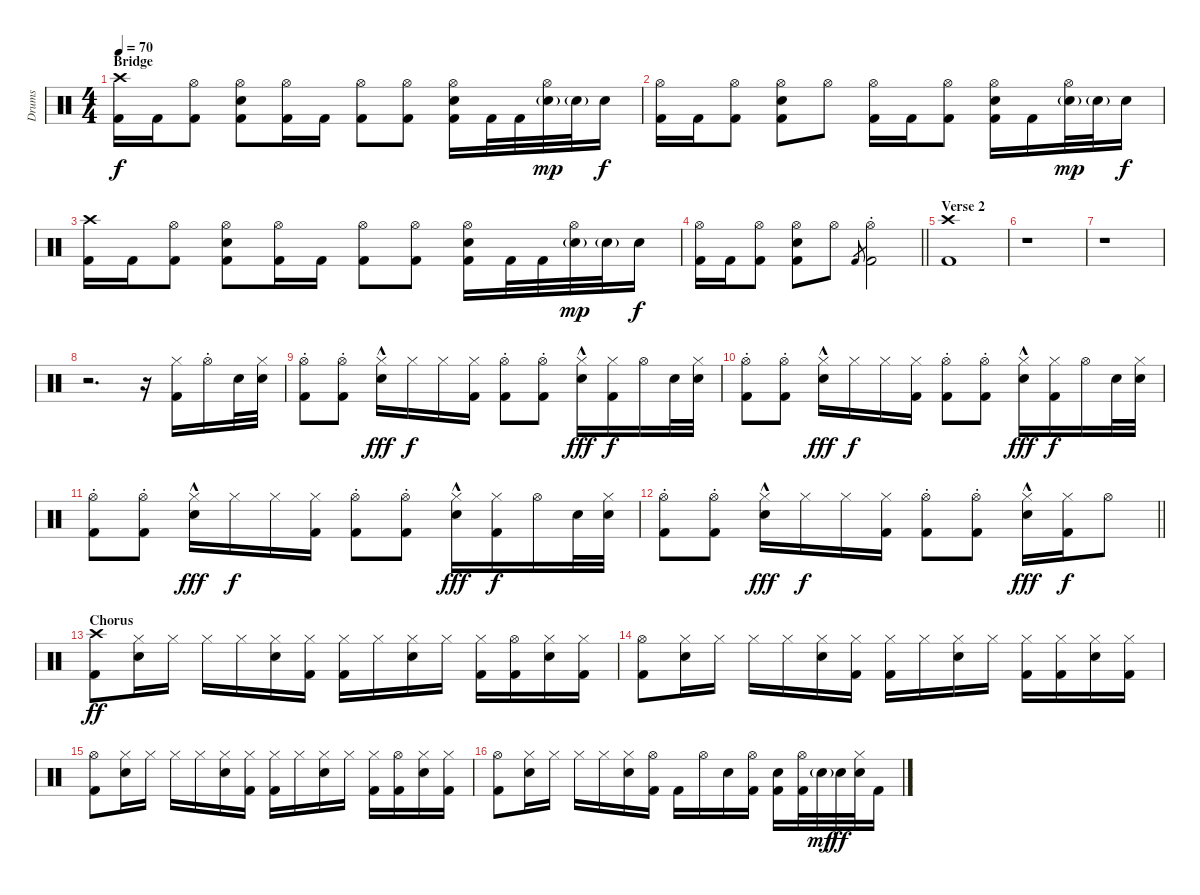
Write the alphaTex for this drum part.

\track ("Drums" "Drums") {instrument percussion}
\staff {score}
\articulation defaults
\ts (4 4)
\section ("" "Bridge")
\tempo 70
\clef neutral
\ks c
("Crash high (hit)" "Kick (hit) 2").16{dy f} "Kick (hit) 2".16 ("Hi-Hat (open)" "Kick (hit) 2").8 ("Hi-Hat (open)" "Electric Snare (hit)" "Kick (hit) 2").8 ("Hi-Hat (open)" "Kick (hit) 2").16 "Kick (hit) 2".16 ("Hi-Hat (open)" "Kick (hit) 2").8 ("Hi-Hat (open)" "Kick (hit) 2").8 ("Hi-Hat (open)" "Electric Snare (hit)" "Kick (hit) 2").16 "Kick (hit) 2".32 "Kick (hit) 2".32 ("Hi-Hat (open)" "Electric Snare (hit)"{g}).32{dy mp} "Electric Snare (hit)"{g}.32 "Electric Snare (hit)".16{dy f} |
("Hi-Hat (open)" "Kick (hit) 2").16 "Kick (hit) 2".16 ("Hi-Hat (open)" "Kick (hit) 2").8 ("Hi-Hat (open)" "Electric Snare (hit)" "Kick (hit) 2").8 "Hi-Hat (open)".8 ("Hi-Hat (open)" "Kick (hit) 2").16 "Kick (hit) 2".16 ("Hi-Hat (open)" "Kick (hit) 2").8 ("Hi-Hat (open)" "Electric Snare (hit)" "Kick (hit) 2").16 "Kick (hit) 2".16 ("Hi-Hat (open)" "Electric Snare (hit)"{g}).32{dy mp} "Electric Snare (hit)"{g}.32 "Electric Snare (hit)".16{dy f} |
("Crash high (hit)" "Kick (hit) 2").16 "Kick (hit) 2".16 ("Hi-Hat (open)" "Kick (hit) 2").8 ("Hi-Hat (open)" "Electric Snare (hit)" "Kick (hit) 2").8 ("Hi-Hat (open)" "Kick (hit) 2").16 "Kick (hit) 2".16 ("Hi-Hat (open)" "Kick (hit) 2").8 ("Hi-Hat (open)" "Kick (hit) 2").8 ("Hi-Hat (open)" "Electric Snare (hit)" "Kick (hit) 2").16 "Kick (hit) 2".32 "Kick (hit) 2".32 ("Hi-Hat (open)" "Electric Snare (hit)"{g}).32{dy mp} "Electric Snare (hit)"{g}.32 "Electric Snare (hit)".16{dy f} |
\barLineRight lightlight
("Hi-Hat (open)" "Kick (hit) 2").16 "Kick (hit) 2".16 ("Hi-Hat (open)" "Kick (hit) 2").8 ("Hi-Hat (open)" "Electric Snare (hit)" "Kick (hit) 2").8 "Hi-Hat (open)".8 "Kick (hit) 2".8{gr} ("Hi-Hat (open)"{st} "Kick (hit) 2").2 |
\section ("" "Verse 2")
("Crash high (hit)" "Kick (hit) 2").1 |
r.1 |
r.1 |
r.2{d} r.16 ("Hi-Hat (closed)" "Kick (hit) 2").16 "Hi-Hat (open)"{st}.16 "Electric Snare (hit)".32 ("Hi-Hat (closed)" "Electric Snare (hit)").32 |
("Hi-Hat (open)"{st} "Kick (hit) 2").8 ("Hi-Hat (open)"{st} "Kick (hit) 2").8 ("Hi-Hat (closed)" "Electric Snare (hit)"{hac}).16{dy fff} "Hi-Hat (closed)".16{dy f} "Hi-Hat (closed)".16 ("Hi-Hat (closed)" "Kick (hit) 2").16 ("Hi-Hat (open)"{st} "Kick (hit) 2").8 ("Hi-Hat (open)"{st} "Kick (hit) 2").8 ("Hi-Hat (closed)" "Electric Snare (hit)"{hac}).16{dy fff} ("Hi-Hat (closed)" "Kick (hit) 2").16{dy f} "Hi-Hat (open)".16 "Electric Snare (hit)".32 ("Hi-Hat (closed)" "Electric Snare (hit)").32 |
("Hi-Hat (open)"{st} "Kick (hit) 2").8 ("Hi-Hat (open)"{st} "Kick (hit) 2").8 ("Hi-Hat (closed)" "Electric Snare (hit)"{hac}).16{dy fff} "Hi-Hat (closed)".16{dy f} "Hi-Hat (closed)".16 ("Hi-Hat (closed)" "Kick (hit) 2").16 ("Hi-Hat (open)"{st} "Kick (hit) 2").8 ("Hi-Hat (open)"{st} "Kick (hit) 2").8 ("Hi-Hat (closed)" "Electric Snare (hit)"{hac}).16{dy fff} ("Hi-Hat (closed)" "Kick (hit) 2").16{dy f} "Hi-Hat (open)".16 "Electric Snare (hit)".32 ("Hi-Hat (closed)" "Electric Snare (hit)").32 |
("Hi-Hat (open)"{st} "Kick (hit) 2").8 ("Hi-Hat (open)"{st} "Kick (hit) 2").8 ("Hi-Hat (closed)" "Electric Snare (hit)"{hac}).16{dy fff} "Hi-Hat (closed)".16{dy f} "Hi-Hat (closed)".16 ("Hi-Hat (closed)" "Kick (hit) 2").16 ("Hi-Hat (open)"{st} "Kick (hit) 2").8 ("Hi-Hat (open)"{st} "Kick (hit) 2").8 ("Hi-Hat (closed)" "Electric Snare (hit)"{hac}).16{dy fff} ("Hi-Hat (closed)" "Kick (hit) 2").16{dy f} "Hi-Hat (open)".16 "Electric Snare (hit)".32 ("Hi-Hat (closed)" "Electric Snare (hit)").32 |
\barLineRight lightlight
("Hi-Hat (open)"{st} "Kick (hit) 2").8 ("Hi-Hat (open)"{st} "Kick (hit) 2").8 ("Hi-Hat (closed)" "Electric Snare (hit)"{hac}).16{dy fff} "Hi-Hat (closed)".16{dy f} "Hi-Hat (closed)".16 ("Hi-Hat (closed)" "Kick (hit) 2").16 ("Hi-Hat (open)"{st} "Kick (hit) 2").8 ("Hi-Hat (open)"{st} "Kick (hit) 2").8 ("Hi-Hat (closed)" "Electric Snare (hit)"{hac}).16{dy fff} ("Hi-Hat (closed)" "Kick (hit) 2").16{dy f} "Hi-Hat (open)".8 |
\section ("" "Chorus")
("Crash high (hit)" "Kick (hit) 2").8{dy ff} ("Hi-Hat (closed)" "Electric Snare (hit)").16 "Hi-Hat (closed)".16 "Hi-Hat (closed)".16 "Hi-Hat (closed)".16 ("Hi-Hat (closed)" "Electric Snare (hit)").16 ("Hi-Hat (closed)" "Kick (hit) 2").16 ("Hi-Hat (closed)" "Kick (hit) 2").16 "Hi-Hat (closed)".16 ("Hi-Hat (closed)" "Electric Snare (hit)").16 "Hi-Hat (closed)".16 ("Hi-Hat (closed)" "Kick (hit) 2").16 ("Hi-Hat (open)" "Kick (hit) 2").16 ("Hi-Hat (closed)" "Electric Snare (hit)").16 ("Hi-Hat (closed)" "Kick (hit) 2").16 |
("Hi-Hat (open)" "Kick (hit) 2").8 ("Hi-Hat (closed)" "Electric Snare (hit)").16 "Hi-Hat (closed)".16 "Hi-Hat (closed)".16 "Hi-Hat (closed)".16 ("Hi-Hat (closed)" "Electric Snare (hit)").16 ("Hi-Hat (closed)" "Kick (hit) 2").16 ("Hi-Hat (closed)" "Kick (hit) 2").16 "Hi-Hat (closed)".16 ("Hi-Hat (closed)" "Electric Snare (hit)").16 "Hi-Hat (closed)".16 ("Hi-Hat (closed)" "Kick (hit) 2").16 ("Hi-Hat (closed)" "Kick (hit) 2").16 ("Hi-Hat (closed)" "Electric Snare (hit)").16 ("Hi-Hat (closed)" "Kick (hit) 2").16 |
("Hi-Hat (open)" "Kick (hit) 2").8 ("Hi-Hat (closed)" "Electric Snare (hit)").16 "Hi-Hat (closed)".16 "Hi-Hat (closed)".16 "Hi-Hat (closed)".16 ("Hi-Hat (closed)" "Electric Snare (hit)").16 ("Hi-Hat (closed)" "Kick (hit) 2").16 ("Hi-Hat (closed)" "Kick (hit) 2").16 "Hi-Hat (closed)".16 ("Hi-Hat (closed)" "Electric Snare (hit)").16 "Hi-Hat (closed)".16 ("Hi-Hat (closed)" "Kick (hit) 2").16 ("Hi-Hat (open)" "Kick (hit) 2").16 ("Hi-Hat (closed)" "Electric Snare (hit)").16 ("Hi-Hat (closed)" "Kick (hit) 2").16 |
("Hi-Hat (open)" "Kick (hit) 2").8 ("Hi-Hat (closed)" "Electric Snare (hit)").16 "Hi-Hat (closed)".16 "Hi-Hat (closed)".16 "Hi-Hat (closed)".16 ("Hi-Hat (closed)" "Electric Snare (hit)").16 ("Hi-Hat (open)" "Kick (hit) 2").16 "Kick (hit) 2".16 "Hi-Hat (open)".16 "Electric Snare (hit)".16 ("Hi-Hat (open)" "Kick (hit) 2").16 ("Electric Snare (hit)" "Kick (hit) 2").16 ("Hi-Hat (open)" "Kick (hit) 2").32 "Electric Snare (hit)"{g}.32{dy mf} "Electric Snare (hit)".32{dy ff} ("Hi-Hat (closed)" "Electric Snare (hit)").32 "Kick (hit) 2".16
